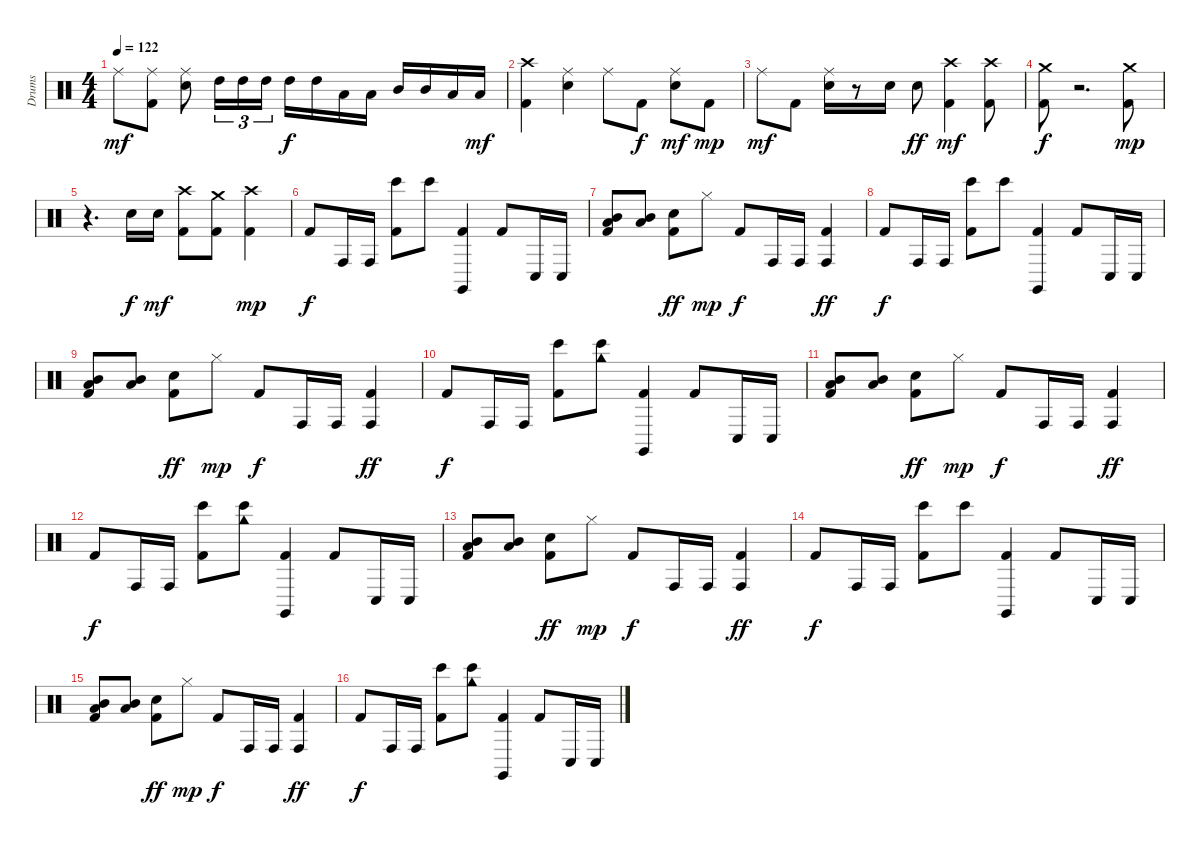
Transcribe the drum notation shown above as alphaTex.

\track ("Drums" "Drums") {instrument percussion}
\staff {score}
\articulation defaults
\ts (4 4)
\tempo 122
\clef neutral
\ks c "Ride (middle)".8{dy mf}
("Ride (middle)" "Kick (hit) 2").8 ("Ride (middle)" "Snare (hit) 2").8 "High Tom (hit)".16{tu (3 2)} "High Tom (hit)".16{tu (3 2)} "High Tom (hit)".16{tu (3 2)} "High Tom (hit)".16{dy f} "High Tom (hit)".16 "Low Tom (hit)".16 "Low Tom (hit)".16 "Mid Tom (hit)".16 "Mid Tom (hit)".16 "Low Floor Tom (hit)".16 "Low Floor Tom (hit)".16{dy mf} |
("Crash high (hit)" "Kick (hit) 2").4 ("Ride (middle)" "Snare (hit) 2").4 "Ride (middle)".8 "Kick (hit) 2".8{dy f} ("Ride (middle)" "Snare (hit) 2").8{dy mf} "Kick (hit) 2".8{dy mp} |
"Ride (middle)".8{dy mf} "Kick (hit) 2".8 ("Ride (middle)" "Snare (hit) 2").16 r.8 "Snare (hit) 2".16 "Snare (hit) 2".8{dy ff} ("Crash high (hit)" "Kick (hit) 2").4{dy mf} ("Crash high (hit)" "Kick (hit) 2").8 |
("Crash medium (hit)" "Kick (hit) 2").8{dy f} r.2{d} ("Kick (hit) 2" "Crash medium (hit)").8{dy mp} |
r.4{d} "Snare (hit) 2".16{dy f} "Snare (hit) 2".16{dy mf} ("Crash high (hit)" "Kick (hit) 2").8 ("Crash medium (hit)" "Kick (hit) 2").8 ("Crash high (hit)" "Kick (hit) 2").4{dy mp} |
"Kick (hit) 2".8{dy f} "Conga high (hit)".16 "Conga high (hit)".16 ("Bongo High (hit)" "Kick (hit) 2").8 "Bongo High (hit)".8 ("Kick (hit) 2" "Claves (hit)").4 "Kick (hit) 2".8 "Conga low (hit)".16 "Conga low (hit)".16 |
("Mid Tom (hit)" "Kick (hit) 2" "Low Floor Tom (hit)").8 ("Mid Tom (hit)" "Low Floor Tom (hit)").8 ("Kick (hit) 2" "Snare (hit) 2").8{dy ff} "Hi-Hat (closed)".8{dy mp} "Kick (hit) 2".8{dy f} "Conga high (hit)".16 "Conga high (hit)".16 ("Conga high (hit)" "Kick (hit) 2").4{dy ff} |
"Kick (hit) 2".8{dy f} "Conga high (hit)".16 "Conga high (hit)".16 ("Bongo High (hit)" "Kick (hit) 2").8 "Bongo High (hit)".8 ("Kick (hit) 2" "Claves (hit)").4 "Kick (hit) 2".8 "Conga low (hit)".16 "Conga low (hit)".16 |
("Mid Tom (hit)" "Kick (hit) 2" "Low Floor Tom (hit)").8 ("Mid Tom (hit)" "Low Floor Tom (hit)").8 ("Kick (hit) 2" "Snare (hit) 2").8{dy ff} "Hi-Hat (closed)".8{dy mp} "Kick (hit) 2".8{dy f} "Conga high (hit)".16 "Conga high (hit)".16 ("Conga high (hit)" "Kick (hit) 2").4{dy ff} |
"Kick (hit) 2".8{dy f} "Conga high (hit)".16 "Conga high (hit)".16 ("Bongo High (hit)" "Kick (hit) 2").8 ("Bongo High (hit)" "Cowbell high (hit)").8 ("Kick (hit) 2" "Claves (hit)").4 "Kick (hit) 2".8 "Conga low (hit)".16 "Conga low (hit)".16 |
("Mid Tom (hit)" "Kick (hit) 2" "Low Floor Tom (hit)").8 ("Mid Tom (hit)" "Low Floor Tom (hit)").8 ("Kick (hit) 2" "Snare (hit) 2").8{dy ff} "Hi-Hat (closed)".8{dy mp} "Kick (hit) 2".8{dy f} "Conga high (hit)".16 "Conga high (hit)".16 ("Conga high (hit)" "Kick (hit) 2").4{dy ff} |
"Kick (hit) 2".8{dy f} "Conga high (hit)".16 "Conga high (hit)".16 ("Bongo High (hit)" "Kick (hit) 2").8 ("Bongo High (hit)" "Cowbell high (hit)").8 ("Kick (hit) 2" "Claves (hit)").4 "Kick (hit) 2".8 "Conga low (hit)".16 "Conga low (hit)".16 |
("Mid Tom (hit)" "Kick (hit) 2" "Low Floor Tom (hit)").8 ("Mid Tom (hit)" "Low Floor Tom (hit)").8 ("Kick (hit) 2" "Snare (hit) 2").8{dy ff} "Hi-Hat (closed)".8{dy mp} "Kick (hit) 2".8{dy f} "Conga high (hit)".16 "Conga high (hit)".16 ("Conga high (hit)" "Kick (hit) 2").4{dy ff} |
"Kick (hit) 2".8{dy f} "Conga high (hit)".16 "Conga high (hit)".16 ("Bongo High (hit)" "Kick (hit) 2").8 "Bongo High (hit)".8 ("Kick (hit) 2" "Claves (hit)").4 "Kick (hit) 2".8 "Conga low (hit)".16 "Conga low (hit)".16 |
("Mid Tom (hit)" "Kick (hit) 2" "Low Floor Tom (hit)").8 ("Mid Tom (hit)" "Low Floor Tom (hit)").8 ("Kick (hit) 2" "Snare (hit) 2").8{dy ff} "Hi-Hat (closed)".8{dy mp} "Kick (hit) 2".8{dy f} "Conga high (hit)".16 "Conga high (hit)".16 ("Conga high (hit)" "Kick (hit) 2").4{dy ff} |
"Kick (hit) 2".8{dy f} "Conga high (hit)".16 "Conga high (hit)".16 ("Bongo High (hit)" "Kick (hit) 2").8 ("Bongo High (hit)" "Cowbell high (hit)").8 ("Kick (hit) 2" "Claves (hit)").4 "Kick (hit) 2".8 "Conga low (hit)".16 "Conga low (hit)".16
